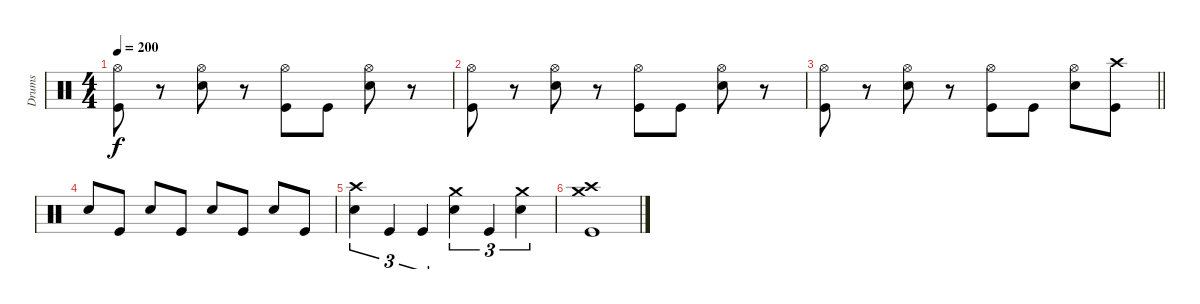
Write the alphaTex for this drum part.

\track ("Drums" "Drums") {instrument percussion}
\staff {score}
\articulation defaults
\ts (4 4)
\tempo 200
\clef neutral
\ks c
("Hi-Hat (open)" "Kick (hit)").8{dy f} r.8 ("Hi-Hat (open)" "Electric Snare (hit)").8 r.8 ("Hi-Hat (open)" "Kick (hit)").8 "Kick (hit)".8 ("Hi-Hat (open)" "Electric Snare (hit)").8 r.8 |
("Hi-Hat (open)" "Kick (hit)").8 r.8 ("Hi-Hat (open)" "Electric Snare (hit)").8 r.8 ("Hi-Hat (open)" "Kick (hit)").8 "Kick (hit)".8 ("Hi-Hat (open)" "Electric Snare (hit)").8 r.8 |
\barLineRight lightlight
("Hi-Hat (open)" "Kick (hit)").8 r.8 ("Hi-Hat (open)" "Electric Snare (hit)").8 r.8 ("Hi-Hat (open)" "Kick (hit)").8 "Kick (hit)".8 ("Hi-Hat (open)" "Electric Snare (hit)").8 ("Crash high (hit)" "Kick (hit)").8 |
"Electric Snare (hit)".8 "Kick (hit)".8 "Electric Snare (hit)".8 "Kick (hit)".8 "Electric Snare (hit)".8 "Kick (hit)".8 "Electric Snare (hit)".8 "Kick (hit)".8 |
("Crash high (hit)" "Electric Snare (hit)").4{tu (3 2)} "Kick (hit)".4{tu (3 2)} "Kick (hit)".4{tu (3 2)} ("Crash medium (hit)" "Electric Snare (hit)").4{tu (3 2)} "Kick (hit)".4{tu (3 2)} ("Crash medium (hit)" "Electric Snare (hit)").4{tu (3 2)} |
("Crash high (hit)" "Crash medium (hit)" "Kick (hit)").1
